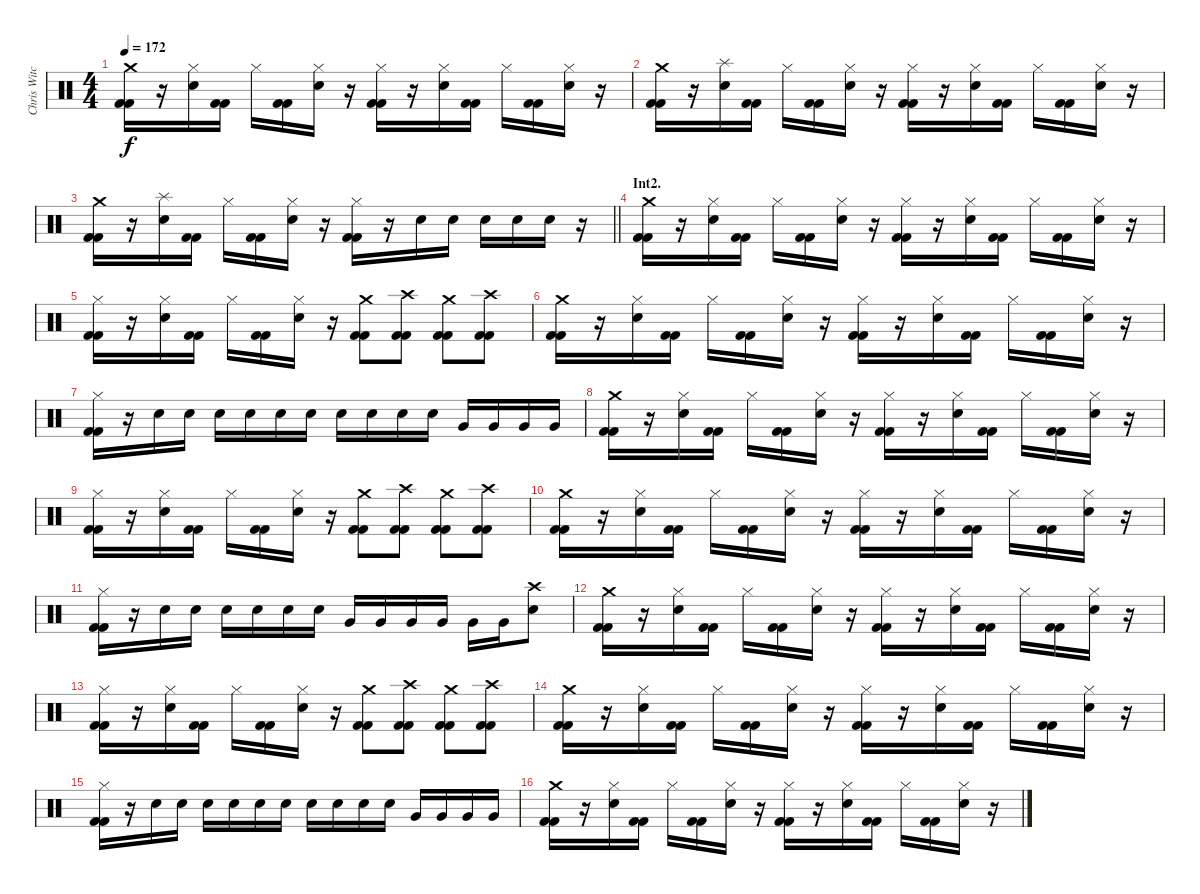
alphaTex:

\track ("Chris Witchhunter" "Chris Witc") {instrument percussion}
\staff {score}
\articulation defaults
\ts (4 4)
\tempo 172
\clef neutral
\ks c
("Kick (hit) 2" "Kick (hit) 2" "Crash medium (hit)").16{dy f} r.16 ("Snare (hit) 2" "Hi-Hat (closed)").16 ("Kick (hit) 2" "Kick (hit) 2").16 "Hi-Hat (closed)".16 ("Kick (hit) 2" "Kick (hit) 2").16 ("Snare (hit) 2" "Hi-Hat (closed)").16 r.16 ("Kick (hit) 2" "Kick (hit) 2" "Hi-Hat (closed)").16 r.16 ("Snare (hit) 2" "Hi-Hat (closed)").16 ("Kick (hit) 2" "Kick (hit) 2").16 "Hi-Hat (closed)".16 ("Kick (hit) 2" "Kick (hit) 2").16 ("Snare (hit) 2" "Hi-Hat (closed)").16 r.16 |
("Kick (hit) 2" "Kick (hit) 2" "Crash medium (hit)").16 r.16 ("Snare (hit) 2" "Splash (hit)").16 ("Kick (hit) 2" "Kick (hit) 2").16 "Hi-Hat (closed)".16 ("Kick (hit) 2" "Kick (hit) 2").16 ("Snare (hit) 2" "Hi-Hat (closed)").16 r.16 ("Kick (hit) 2" "Kick (hit) 2" "Hi-Hat (closed)").16 r.16 ("Snare (hit) 2" "Hi-Hat (closed)").16 ("Kick (hit) 2" "Kick (hit) 2").16 "Hi-Hat (closed)".16 ("Kick (hit) 2" "Kick (hit) 2").16 ("Snare (hit) 2" "Hi-Hat (closed)").16 r.16 |
\barLineRight lightlight
("Kick (hit) 2" "Kick (hit) 2" "Crash medium (hit)").16 r.16 ("Snare (hit) 2" "Splash (hit)").16 ("Kick (hit) 2" "Kick (hit) 2").16 "Hi-Hat (closed)".16 ("Kick (hit) 2" "Kick (hit) 2").16 ("Snare (hit) 2" "Hi-Hat (closed)").16 r.16 ("Kick (hit) 2" "Kick (hit) 2" "Hi-Hat (closed)").16 r.16 "Snare (hit) 2".16 "Snare (hit) 2".16 "Snare (hit) 2".16 "Snare (hit) 2".16 "Snare (hit) 2".16 r.16 |
\section ("" "Int2.")
("Kick (hit) 2" "Kick (hit) 2" "Crash medium (hit)").16 r.16 ("Snare (hit) 2" "Hi-Hat (closed)").16 ("Kick (hit) 2" "Kick (hit) 2").16 "Hi-Hat (closed)".16 ("Kick (hit) 2" "Kick (hit) 2").16 ("Snare (hit) 2" "Hi-Hat (closed)").16 r.16 ("Kick (hit) 2" "Kick (hit) 2" "Hi-Hat (closed)").16 r.16 ("Snare (hit) 2" "Hi-Hat (closed)").16 ("Kick (hit) 2" "Kick (hit) 2").16 "Hi-Hat (closed)".16 ("Kick (hit) 2" "Kick (hit) 2").16 ("Snare (hit) 2" "Hi-Hat (closed)").16 r.16 |
("Kick (hit) 2" "Kick (hit) 2" "Hi-Hat (closed)").16 r.16 ("Snare (hit) 2" "Hi-Hat (closed)").16 ("Kick (hit) 2" "Kick (hit) 2").16 "Hi-Hat (closed)".16 ("Kick (hit) 2" "Kick (hit) 2").16 ("Snare (hit) 2" "Hi-Hat (closed)").16 r.16 ("Kick (hit) 2" "Kick (hit) 2" "Crash medium (hit)").8 ("Kick (hit) 2" "Kick (hit) 2" "Crash high (hit)").8 ("Kick (hit) 2" "Kick (hit) 2" "Crash medium (hit)").8 ("Kick (hit) 2" "Kick (hit) 2" "Crash high (hit)").8 |
("Kick (hit) 2" "Kick (hit) 2" "Crash medium (hit)").16 r.16 ("Snare (hit) 2" "Hi-Hat (closed)").16 ("Kick (hit) 2" "Kick (hit) 2").16 "Hi-Hat (closed)".16 ("Kick (hit) 2" "Kick (hit) 2").16 ("Snare (hit) 2" "Hi-Hat (closed)").16 r.16 ("Kick (hit) 2" "Kick (hit) 2" "Hi-Hat (closed)").16 r.16 ("Snare (hit) 2" "Hi-Hat (closed)").16 ("Kick (hit) 2" "Kick (hit) 2").16 "Hi-Hat (closed)".16 ("Kick (hit) 2" "Kick (hit) 2").16 ("Snare (hit) 2" "Hi-Hat (closed)").16 r.16 |
("Kick (hit) 2" "Kick (hit) 2" "Hi-Hat (closed)").16 r.16 "Snare (hit) 2".16 "Snare (hit) 2".16 "Snare (hit) 2".16 "Snare (hit) 2".16 "Snare (hit) 2".16 "Snare (hit) 2".16 "Snare (hit) 2".16 "Snare (hit) 2".16 "Snare (hit) 2".16 "Snare (hit) 2".16 "Very Low Tom (hit)".16 "Very Low Tom (hit)".16 "Very Low Tom (hit)".16 "Very Low Tom (hit)".16 |
("Kick (hit) 2" "Kick (hit) 2" "Crash medium (hit)").16 r.16 ("Snare (hit) 2" "Hi-Hat (closed)").16 ("Kick (hit) 2" "Kick (hit) 2").16 "Hi-Hat (closed)".16 ("Kick (hit) 2" "Kick (hit) 2").16 ("Snare (hit) 2" "Hi-Hat (closed)").16 r.16 ("Kick (hit) 2" "Kick (hit) 2" "Hi-Hat (closed)").16 r.16 ("Snare (hit) 2" "Hi-Hat (closed)").16 ("Kick (hit) 2" "Kick (hit) 2").16 "Hi-Hat (closed)".16 ("Kick (hit) 2" "Kick (hit) 2").16 ("Snare (hit) 2" "Hi-Hat (closed)").16 r.16 |
("Kick (hit) 2" "Kick (hit) 2" "Hi-Hat (closed)").16 r.16 ("Snare (hit) 2" "Hi-Hat (closed)").16 ("Kick (hit) 2" "Kick (hit) 2").16 "Hi-Hat (closed)".16 ("Kick (hit) 2" "Kick (hit) 2").16 ("Snare (hit) 2" "Hi-Hat (closed)").16 r.16 ("Kick (hit) 2" "Kick (hit) 2" "Crash medium (hit)").8 ("Kick (hit) 2" "Kick (hit) 2" "Crash high (hit)").8 ("Kick (hit) 2" "Kick (hit) 2" "Crash medium (hit)").8 ("Kick (hit) 2" "Kick (hit) 2" "Crash high (hit)").8 |
("Kick (hit) 2" "Kick (hit) 2" "Crash medium (hit)").16 r.16 ("Snare (hit) 2" "Hi-Hat (closed)").16 ("Kick (hit) 2" "Kick (hit) 2").16 "Hi-Hat (closed)".16 ("Kick (hit) 2" "Kick (hit) 2").16 ("Snare (hit) 2" "Hi-Hat (closed)").16 r.16 ("Kick (hit) 2" "Kick (hit) 2" "Hi-Hat (closed)").16 r.16 ("Snare (hit) 2" "Hi-Hat (closed)").16 ("Kick (hit) 2" "Kick (hit) 2").16 "Hi-Hat (closed)".16 ("Kick (hit) 2" "Kick (hit) 2").16 ("Snare (hit) 2" "Hi-Hat (closed)").16 r.16 |
("Kick (hit) 2" "Kick (hit) 2" "Hi-Hat (closed)").16 r.16 "Snare (hit) 2".16 "Snare (hit) 2".16 "Snare (hit) 2".16 "Snare (hit) 2".16 "Snare (hit) 2".16 "Snare (hit) 2".16 "Very Low Tom (hit)".16 "Very Low Tom (hit)".16 "Very Low Tom (hit)".16 "Very Low Tom (hit)".16 "Very Low Tom (hit)".16 "Very Low Tom (hit)".16 ("Crash high (hit)" "Snare (hit) 2").8 |
("Kick (hit) 2" "Kick (hit) 2" "Crash medium (hit)").16 r.16 ("Snare (hit) 2" "Hi-Hat (closed)").16 ("Kick (hit) 2" "Kick (hit) 2").16 "Hi-Hat (closed)".16 ("Kick (hit) 2" "Kick (hit) 2").16 ("Snare (hit) 2" "Hi-Hat (closed)").16 r.16 ("Kick (hit) 2" "Kick (hit) 2" "Hi-Hat (closed)").16 r.16 ("Snare (hit) 2" "Hi-Hat (closed)").16 ("Kick (hit) 2" "Kick (hit) 2").16 "Hi-Hat (closed)".16 ("Kick (hit) 2" "Kick (hit) 2").16 ("Snare (hit) 2" "Hi-Hat (closed)").16 r.16 |
("Kick (hit) 2" "Kick (hit) 2" "Hi-Hat (closed)").16 r.16 ("Snare (hit) 2" "Hi-Hat (closed)").16 ("Kick (hit) 2" "Kick (hit) 2").16 "Hi-Hat (closed)".16 ("Kick (hit) 2" "Kick (hit) 2").16 ("Snare (hit) 2" "Hi-Hat (closed)").16 r.16 ("Kick (hit) 2" "Kick (hit) 2" "Crash medium (hit)").8 ("Kick (hit) 2" "Kick (hit) 2" "Crash high (hit)").8 ("Kick (hit) 2" "Kick (hit) 2" "Crash medium (hit)").8 ("Kick (hit) 2" "Kick (hit) 2" "Crash high (hit)").8 |
("Kick (hit) 2" "Kick (hit) 2" "Crash medium (hit)").16 r.16 ("Snare (hit) 2" "Hi-Hat (closed)").16 ("Kick (hit) 2" "Kick (hit) 2").16 "Hi-Hat (closed)".16 ("Kick (hit) 2" "Kick (hit) 2").16 ("Snare (hit) 2" "Hi-Hat (closed)").16 r.16 ("Kick (hit) 2" "Kick (hit) 2" "Hi-Hat (closed)").16 r.16 ("Snare (hit) 2" "Hi-Hat (closed)").16 ("Kick (hit) 2" "Kick (hit) 2").16 "Hi-Hat (closed)".16 ("Kick (hit) 2" "Kick (hit) 2").16 ("Snare (hit) 2" "Hi-Hat (closed)").16 r.16 |
("Kick (hit) 2" "Kick (hit) 2" "Hi-Hat (closed)").16 r.16 "Snare (hit) 2".16 "Snare (hit) 2".16 "Snare (hit) 2".16 "Snare (hit) 2".16 "Snare (hit) 2".16 "Snare (hit) 2".16 "Snare (hit) 2".16 "Snare (hit) 2".16 "Snare (hit) 2".16 "Snare (hit) 2".16 "Very Low Tom (hit)".16 "Very Low Tom (hit)".16 "Very Low Tom (hit)".16 "Very Low Tom (hit)".16 |
("Kick (hit) 2" "Kick (hit) 2" "Crash medium (hit)").16 r.16 ("Snare (hit) 2" "Hi-Hat (closed)").16 ("Kick (hit) 2" "Kick (hit) 2").16 "Hi-Hat (closed)".16 ("Kick (hit) 2" "Kick (hit) 2").16 ("Snare (hit) 2" "Hi-Hat (closed)").16 r.16 ("Kick (hit) 2" "Kick (hit) 2" "Hi-Hat (closed)").16 r.16 ("Snare (hit) 2" "Hi-Hat (closed)").16 ("Kick (hit) 2" "Kick (hit) 2").16 "Hi-Hat (closed)".16 ("Kick (hit) 2" "Kick (hit) 2").16 ("Snare (hit) 2" "Hi-Hat (closed)").16 r.16
